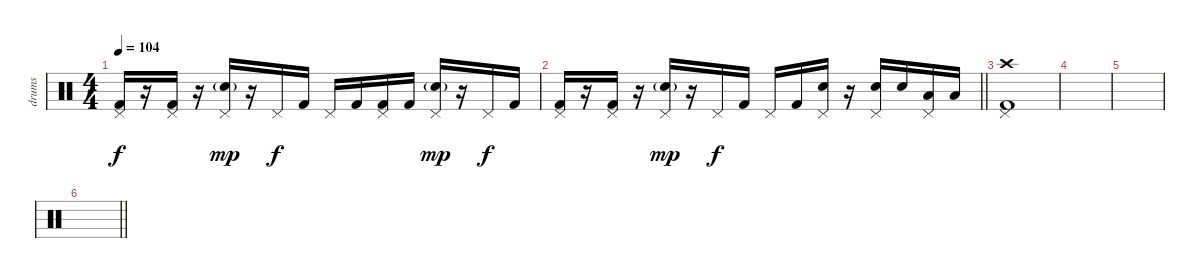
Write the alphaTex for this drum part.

\track ("drums" "drums") {instrument percussion}
\staff {score}
\articulation defaults
\ts (4 4)
\tempo 104
\clef neutral
\ks c
("Kick (hit) 2" "Pedal Hi-Hat (hit)").16{dy f} r.16 ("Kick (hit) 2" "Pedal Hi-Hat (hit)").16 r.16 ("Snare (hit) 2"{g} "Pedal Hi-Hat (hit)").16{dy mp} r.16 "Pedal Hi-Hat (hit)".16{dy f} "Kick (hit) 2".16 "Pedal Hi-Hat (hit)".16 "Kick (hit) 2".16 ("Kick (hit) 2" "Pedal Hi-Hat (hit)").16 "Kick (hit) 2".16 ("Snare (hit) 2"{g} "Pedal Hi-Hat (hit)").16{dy mp} r.16 "Pedal Hi-Hat (hit)".16{dy f} "Kick (hit) 2".16 |
\barLineRight lightlight
("Kick (hit) 2" "Pedal Hi-Hat (hit)").16 r.16 ("Kick (hit) 2" "Pedal Hi-Hat (hit)").16 r.16 ("Snare (hit) 2"{g} "Pedal Hi-Hat (hit)").16{dy mp} r.16 "Pedal Hi-Hat (hit)".16{dy f} "Kick (hit) 2".16 "Pedal Hi-Hat (hit)".16 "Kick (hit) 2".16 ("Snare (hit) 2" "Pedal Hi-Hat (hit)").16 r.16 ("Snare (hit) 2" "Pedal Hi-Hat (hit)").16 "Snare (hit) 2".16 ("Low Tom (hit)" "Pedal Hi-Hat (hit)").16 "Low Tom (hit)".16 |
("Kick (hit) 2" "Pedal Hi-Hat (hit)" "Crash high (hit)").1 |
|
|
\barLineRight lightlight
